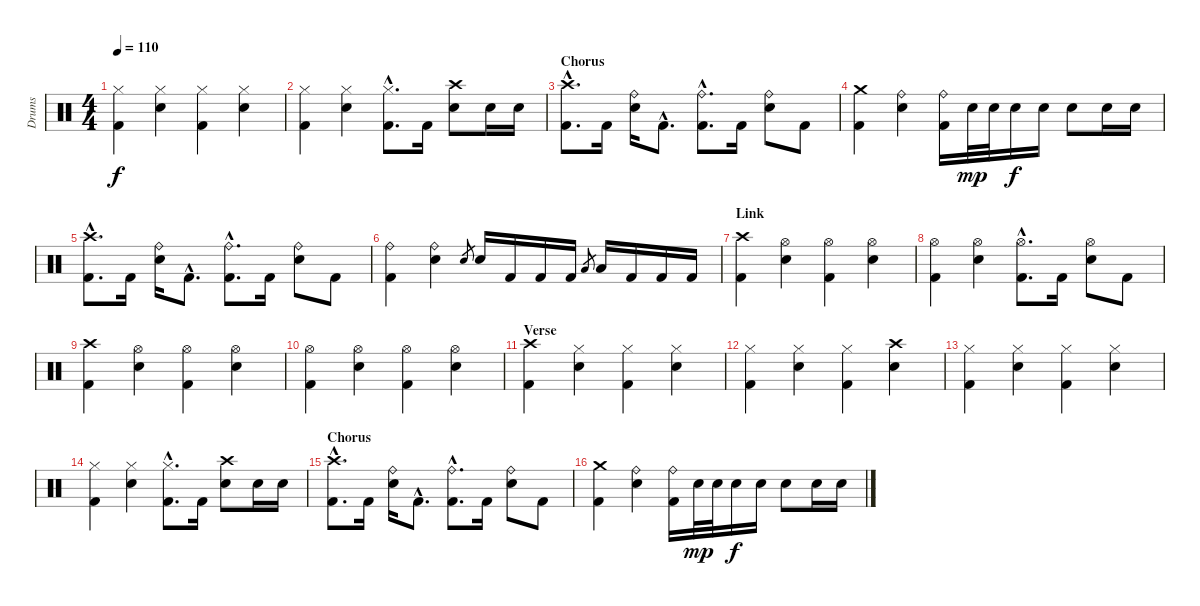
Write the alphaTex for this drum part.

\track ("Drums" "Drums") {instrument percussion}
\staff {score}
\articulation defaults
\ts (4 4)
\tempo 110
\clef neutral
\ks c
("Hi-Hat (closed)" "Kick (hit) 2").4{dy f} ("Hi-Hat (closed)" "Electric Snare (hit)").4 ("Hi-Hat (closed)" "Kick (hit) 2").4 ("Hi-Hat (closed)" "Electric Snare (hit)").4 |
("Hi-Hat (closed)" "Kick (hit) 2").4 ("Hi-Hat (closed)" "Electric Snare (hit)").4 ("Hi-Hat (closed)"{hac} "Kick (hit) 2"{hac}).8{d} "Kick (hit) 2".16 ("Crash high (hit)" "Electric Snare (hit)").8 "Electric Snare (hit)".16 "Electric Snare (hit)".16 |
\section ("" "Chorus")
("Crash high (hit)"{hac} "Kick (hit) 2"{hac}).8{d} "Kick (hit) 2".16 ("Ride (bell)" "Electric Snare (hit)").16 "Kick (hit) 2"{hac}.8{d} ("Ride (bell)"{hac} "Kick (hit) 2"{hac}).8{d} "Kick (hit) 2".16 ("Ride (bell)" "Electric Snare (hit)").8 "Kick (hit) 2".8 |
("Crash medium (hit)" "Kick (hit) 2").4 ("Ride (bell)" "Electric Snare (hit)").4 ("Ride (bell)" "Kick (hit) 2").16 "Electric Snare (hit)".32{dy mp} "Electric Snare (hit)".32 "Electric Snare (hit)".16{dy f} "Electric Snare (hit)".16 "Electric Snare (hit)".8 "Electric Snare (hit)".16 "Electric Snare (hit)".16 |
("Crash high (hit)"{hac} "Kick (hit) 2"{hac}).8{d} "Kick (hit) 2".16 ("Ride (bell)" "Electric Snare (hit)").16 "Kick (hit) 2"{hac}.8{d} ("Ride (bell)"{hac} "Kick (hit) 2"{hac}).8{d} "Kick (hit) 2".16 ("Ride (bell)" "Electric Snare (hit)").8 "Kick (hit) 2".8 |
("Ride (bell)" "Kick (hit) 2").4 ("Ride (bell)" "Electric Snare (hit)").4 "Electric Snare (hit)".8{gr} "Electric Snare (hit)".16 "Kick (hit) 2".16 "Kick (hit) 2".16 "Kick (hit) 2".16 "Low Tom (hit)".8{gr} "Low Tom (hit)".16 "Kick (hit) 2".16 "Kick (hit) 2".16 "Kick (hit) 2".16 |
\section ("" "Link")
("Crash high (hit)" "Kick (hit) 2").4 ("Hi-Hat (open)" "Electric Snare (hit)").4 ("Hi-Hat (open)" "Kick (hit) 2").4 ("Hi-Hat (open)" "Electric Snare (hit)").4 |
("Hi-Hat (open)" "Kick (hit) 2").4 ("Hi-Hat (open)" "Electric Snare (hit)").4 ("Hi-Hat (open)"{hac} "Kick (hit) 2"{hac}).8{d} "Kick (hit) 2".16 ("Hi-Hat (open)" "Electric Snare (hit)").8 "Kick (hit) 2".8 |
("Crash high (hit)" "Kick (hit) 2").4 ("Hi-Hat (open)" "Electric Snare (hit)").4 ("Hi-Hat (open)" "Kick (hit) 2").4 ("Hi-Hat (open)" "Electric Snare (hit)").4 |
("Hi-Hat (open)" "Kick (hit) 2").4 ("Hi-Hat (open)" "Electric Snare (hit)").4 ("Hi-Hat (open)" "Kick (hit) 2").4 ("Hi-Hat (open)" "Electric Snare (hit)").4 |
\section ("" "Verse")
("Crash high (hit)" "Kick (hit) 2").4 ("Hi-Hat (closed)" "Electric Snare (hit)").4 ("Hi-Hat (closed)" "Kick (hit) 2").4 ("Hi-Hat (closed)" "Electric Snare (hit)").4 |
("Hi-Hat (closed)" "Kick (hit) 2").4 ("Hi-Hat (closed)" "Electric Snare (hit)").4 ("Hi-Hat (closed)" "Kick (hit) 2").4 ("Crash high (hit)" "Electric Snare (hit)").4 |
("Hi-Hat (closed)" "Kick (hit) 2").4 ("Hi-Hat (closed)" "Electric Snare (hit)").4 ("Hi-Hat (closed)" "Kick (hit) 2").4 ("Hi-Hat (closed)" "Electric Snare (hit)").4 |
("Hi-Hat (closed)" "Kick (hit) 2").4 ("Hi-Hat (closed)" "Electric Snare (hit)").4 ("Hi-Hat (closed)"{hac} "Kick (hit) 2"{hac}).8{d} "Kick (hit) 2".16 ("Crash high (hit)" "Electric Snare (hit)").8 "Electric Snare (hit)".16 "Electric Snare (hit)".16 |
\section ("" "Chorus")
("Crash high (hit)"{hac} "Kick (hit) 2"{hac}).8{d} "Kick (hit) 2".16 ("Ride (bell)" "Electric Snare (hit)").16 "Kick (hit) 2"{hac}.8{d} ("Ride (bell)"{hac} "Kick (hit) 2"{hac}).8{d} "Kick (hit) 2".16 ("Ride (bell)" "Electric Snare (hit)").8 "Kick (hit) 2".8 |
("Crash medium (hit)" "Kick (hit) 2").4 ("Ride (bell)" "Electric Snare (hit)").4 ("Ride (bell)" "Kick (hit) 2").16 "Electric Snare (hit)".32{dy mp} "Electric Snare (hit)".32 "Electric Snare (hit)".16{dy f} "Electric Snare (hit)".16 "Electric Snare (hit)".8 "Electric Snare (hit)".16 "Electric Snare (hit)".16
